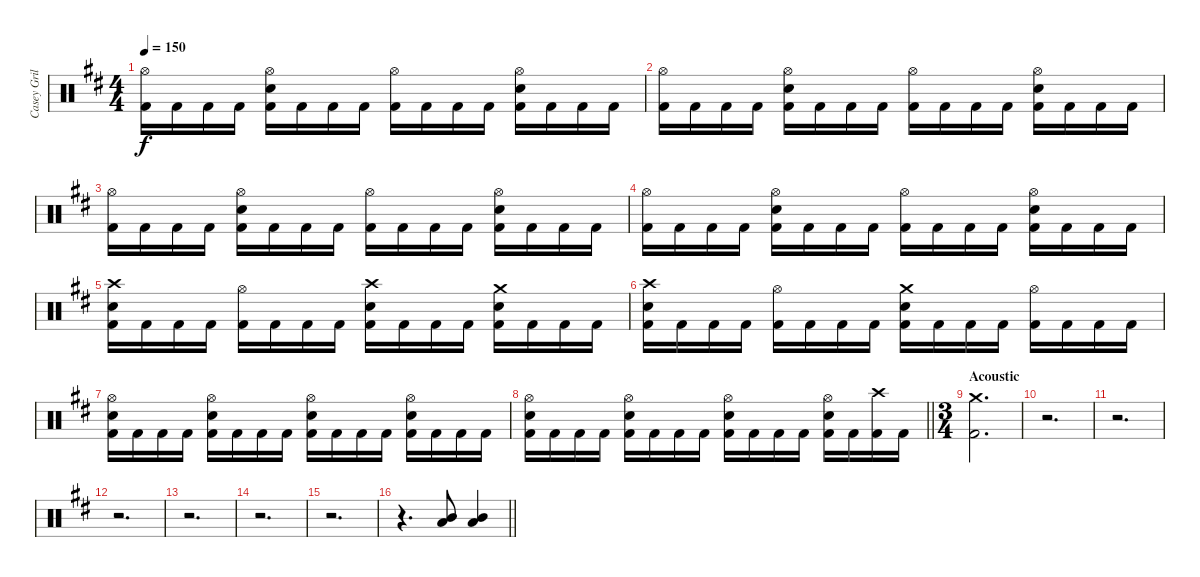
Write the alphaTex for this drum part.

\track ("Casey Grillo" "Casey Gril") {instrument percussion}
\staff {score}
\articulation defaults
\ts (4 4)
\tempo 150
\clef neutral
\ks bminor
("Hi-Hat (open)" "Kick (hit) 2").16{dy f} "Kick (hit) 2".16 "Kick (hit) 2".16 "Kick (hit) 2".16 ("Hi-Hat (open)" "Electric Snare (hit)" "Kick (hit) 2").16 "Kick (hit) 2".16 "Kick (hit) 2".16 "Kick (hit) 2".16 ("Hi-Hat (open)" "Kick (hit) 2").16 "Kick (hit) 2".16 "Kick (hit) 2".16 "Kick (hit) 2".16 ("Hi-Hat (open)" "Electric Snare (hit)" "Kick (hit) 2").16 "Kick (hit) 2".16 "Kick (hit) 2".16 "Kick (hit) 2".16 |
("Hi-Hat (open)" "Kick (hit) 2").16 "Kick (hit) 2".16 "Kick (hit) 2".16 "Kick (hit) 2".16 ("Hi-Hat (open)" "Electric Snare (hit)" "Kick (hit) 2").16 "Kick (hit) 2".16 "Kick (hit) 2".16 "Kick (hit) 2".16 ("Hi-Hat (open)" "Kick (hit) 2").16 "Kick (hit) 2".16 "Kick (hit) 2".16 "Kick (hit) 2".16 ("Hi-Hat (open)" "Electric Snare (hit)" "Kick (hit) 2").16 "Kick (hit) 2".16 "Kick (hit) 2".16 "Kick (hit) 2".16 |
("Hi-Hat (open)" "Kick (hit) 2").16 "Kick (hit) 2".16 "Kick (hit) 2".16 "Kick (hit) 2".16 ("Hi-Hat (open)" "Electric Snare (hit)" "Kick (hit) 2").16 "Kick (hit) 2".16 "Kick (hit) 2".16 "Kick (hit) 2".16 ("Hi-Hat (open)" "Kick (hit) 2").16 "Kick (hit) 2".16 "Kick (hit) 2".16 "Kick (hit) 2".16 ("Hi-Hat (open)" "Electric Snare (hit)" "Kick (hit) 2").16 "Kick (hit) 2".16 "Kick (hit) 2".16 "Kick (hit) 2".16 |
("Hi-Hat (open)" "Kick (hit) 2").16 "Kick (hit) 2".16 "Kick (hit) 2".16 "Kick (hit) 2".16 ("Hi-Hat (open)" "Electric Snare (hit)" "Kick (hit) 2").16 "Kick (hit) 2".16 "Kick (hit) 2".16 "Kick (hit) 2".16 ("Hi-Hat (open)" "Kick (hit) 2").16 "Kick (hit) 2".16 "Kick (hit) 2".16 "Kick (hit) 2".16 ("Hi-Hat (open)" "Electric Snare (hit)" "Kick (hit) 2").16 "Kick (hit) 2".16 "Kick (hit) 2".16 "Kick (hit) 2".16 |
("Crash high (hit)" "Electric Snare (hit)" "Kick (hit) 2").16 "Kick (hit) 2".16 "Kick (hit) 2".16 "Kick (hit) 2".16 ("Hi-Hat (open)" "Kick (hit) 2").16 "Kick (hit) 2".16 "Kick (hit) 2".16 "Kick (hit) 2".16 ("Crash high (hit)" "Electric Snare (hit)" "Kick (hit) 2").16 "Kick (hit) 2".16 "Kick (hit) 2".16 "Kick (hit) 2".16 ("Crash medium (hit)" "Electric Snare (hit)" "Kick (hit) 2").16 "Kick (hit) 2".16 "Kick (hit) 2".16 "Kick (hit) 2".16 |
("Crash high (hit)" "Electric Snare (hit)" "Kick (hit) 2").16 "Kick (hit) 2".16 "Kick (hit) 2".16 "Kick (hit) 2".16 ("Hi-Hat (open)" "Kick (hit) 2").16 "Kick (hit) 2".16 "Kick (hit) 2".16 "Kick (hit) 2".16 ("Crash medium (hit)" "Electric Snare (hit)" "Kick (hit) 2").16 "Kick (hit) 2".16 "Kick (hit) 2".16 "Kick (hit) 2".16 ("Hi-Hat (open)" "Kick (hit) 2").16 "Kick (hit) 2".16 "Kick (hit) 2".16 "Kick (hit) 2".16 |
("Hi-Hat (open)" "Electric Snare (hit)" "Kick (hit) 2").16 "Kick (hit) 2".16 "Kick (hit) 2".16 "Kick (hit) 2".16 ("Hi-Hat (open)" "Electric Snare (hit)" "Kick (hit) 2").16 "Kick (hit) 2".16 "Kick (hit) 2".16 "Kick (hit) 2".16 ("Hi-Hat (open)" "Electric Snare (hit)" "Kick (hit) 2").16 "Kick (hit) 2".16 "Kick (hit) 2".16 "Kick (hit) 2".16 ("Hi-Hat (open)" "Electric Snare (hit)" "Kick (hit) 2").16 "Kick (hit) 2".16 "Kick (hit) 2".16 "Kick (hit) 2".16 |
\barLineRight lightlight
("Hi-Hat (open)" "Electric Snare (hit)" "Kick (hit) 2").16 "Kick (hit) 2".16 "Kick (hit) 2".16 "Kick (hit) 2".16 ("Hi-Hat (open)" "Electric Snare (hit)" "Kick (hit) 2").16 "Kick (hit) 2".16 "Kick (hit) 2".16 "Kick (hit) 2".16 ("Hi-Hat (open)" "Electric Snare (hit)" "Kick (hit) 2").16 "Kick (hit) 2".16 "Kick (hit) 2".16 "Kick (hit) 2".16 ("Hi-Hat (open)" "Electric Snare (hit)" "Kick (hit) 2").16 "Kick (hit) 2".16 ("Crash high (hit)" "Kick (hit) 2").16 "Kick (hit) 2".16 |
\ts (3 4)
\section ("" "Acoustic")
("Crash medium (hit)" "Kick (hit) 2").2{d} |
r.2{d} |
r.2{d} |
r.2{d} |
r.2{d} |
r.2{d} |
r.2{d} |
\barLineRight lightlight
r.4{d} ("Mid Tom (hit)" "Low Tom (hit)").8 ("Mid Tom (hit)" "Low Tom (hit)").4
